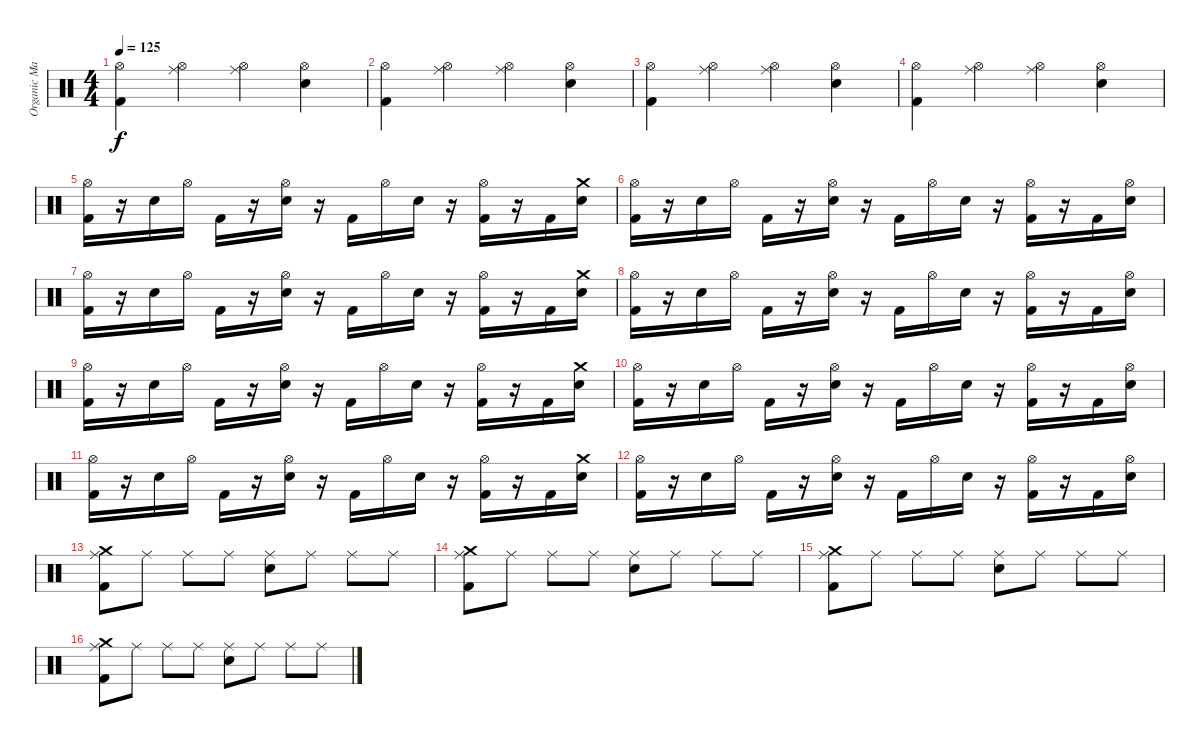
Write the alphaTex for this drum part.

\track ("Organic Masturbator Of 1000 Splatter Who" "Organic Ma") {instrument percussion}
\staff {score}
\articulation defaults
\ts (4 4)
\tempo 125
\clef neutral
\ks c
("Hi-Hat (open)" "Kick (hit) 2").4{dy f} ("Ride (middle)" "Hi-Hat (open)").4 ("Ride (middle)" "Hi-Hat (open)").4 ("Hi-Hat (open)" "Electric Snare (hit)").4 |
("Hi-Hat (open)" "Kick (hit) 2").4 ("Ride (middle)" "Hi-Hat (open)").4 ("Ride (middle)" "Hi-Hat (open)").4 ("Hi-Hat (open)" "Electric Snare (hit)").4 |
("Hi-Hat (open)" "Kick (hit) 2").4 ("Ride (middle)" "Hi-Hat (open)").4 ("Ride (middle)" "Hi-Hat (open)").4 ("Hi-Hat (open)" "Electric Snare (hit)").4 |
("Hi-Hat (open)" "Kick (hit) 2").4 ("Ride (middle)" "Hi-Hat (open)").4 ("Ride (middle)" "Hi-Hat (open)").4 ("Hi-Hat (open)" "Electric Snare (hit)").4 |
("Hi-Hat (open)" "Kick (hit) 2").16 r.16 "Electric Snare (hit)".16 "Hi-Hat (open)".16 "Kick (hit) 2".16 r.16 ("Hi-Hat (open)" "Electric Snare (hit)").16 r.16 "Kick (hit) 2".16 "Hi-Hat (open)".16 "Electric Snare (hit)".16 r.16 ("Hi-Hat (open)" "Kick (hit) 2").16 r.16 "Kick (hit) 2".16 ("Crash medium (hit)" "Electric Snare (hit)").16 |
("Hi-Hat (open)" "Kick (hit) 2").16 r.16 "Electric Snare (hit)".16 "Hi-Hat (open)".16 "Kick (hit) 2".16 r.16 ("Hi-Hat (open)" "Electric Snare (hit)").16 r.16 "Kick (hit) 2".16 "Hi-Hat (open)".16 "Electric Snare (hit)".16 r.16 ("Hi-Hat (open)" "Kick (hit) 2").16 r.16 "Kick (hit) 2".16 ("Hi-Hat (open)" "Electric Snare (hit)").16 |
("Hi-Hat (open)" "Kick (hit) 2").16 r.16 "Electric Snare (hit)".16 "Hi-Hat (open)".16 "Kick (hit) 2".16 r.16 ("Hi-Hat (open)" "Electric Snare (hit)").16 r.16 "Kick (hit) 2".16 "Hi-Hat (open)".16 "Electric Snare (hit)".16 r.16 ("Hi-Hat (open)" "Kick (hit) 2").16 r.16 "Kick (hit) 2".16 ("Crash medium (hit)" "Electric Snare (hit)").16 |
("Hi-Hat (open)" "Kick (hit) 2").16 r.16 "Electric Snare (hit)".16 "Hi-Hat (open)".16 "Kick (hit) 2".16 r.16 ("Hi-Hat (open)" "Electric Snare (hit)").16 r.16 "Kick (hit) 2".16 "Hi-Hat (open)".16 "Electric Snare (hit)".16 r.16 ("Hi-Hat (open)" "Kick (hit) 2").16 r.16 "Kick (hit) 2".16 ("Hi-Hat (open)" "Electric Snare (hit)").16 |
("Hi-Hat (open)" "Kick (hit) 2").16 r.16 "Electric Snare (hit)".16 "Hi-Hat (open)".16 "Kick (hit) 2".16 r.16 ("Hi-Hat (open)" "Electric Snare (hit)").16 r.16 "Kick (hit) 2".16 "Hi-Hat (open)".16 "Electric Snare (hit)".16 r.16 ("Hi-Hat (open)" "Kick (hit) 2").16 r.16 "Kick (hit) 2".16 ("Crash medium (hit)" "Electric Snare (hit)").16 |
("Hi-Hat (open)" "Kick (hit) 2").16 r.16 "Electric Snare (hit)".16 "Hi-Hat (open)".16 "Kick (hit) 2".16 r.16 ("Hi-Hat (open)" "Electric Snare (hit)").16 r.16 "Kick (hit) 2".16 "Hi-Hat (open)".16 "Electric Snare (hit)".16 r.16 ("Hi-Hat (open)" "Kick (hit) 2").16 r.16 "Kick (hit) 2".16 ("Hi-Hat (open)" "Electric Snare (hit)").16 |
("Hi-Hat (open)" "Kick (hit) 2").16 r.16 "Electric Snare (hit)".16 "Hi-Hat (open)".16 "Kick (hit) 2".16 r.16 ("Hi-Hat (open)" "Electric Snare (hit)").16 r.16 "Kick (hit) 2".16 "Hi-Hat (open)".16 "Electric Snare (hit)".16 r.16 ("Hi-Hat (open)" "Kick (hit) 2").16 r.16 "Kick (hit) 2".16 ("Crash medium (hit)" "Electric Snare (hit)").16 |
("Hi-Hat (open)" "Kick (hit) 2").16 r.16 "Electric Snare (hit)".16 "Hi-Hat (open)".16 "Kick (hit) 2".16 r.16 ("Hi-Hat (open)" "Electric Snare (hit)").16 r.16 "Kick (hit) 2".16 "Hi-Hat (open)".16 "Electric Snare (hit)".16 r.16 ("Hi-Hat (open)" "Kick (hit) 2").16 r.16 "Kick (hit) 2".16 ("Hi-Hat (open)" "Electric Snare (hit)").16 |
("Ride (middle)" "Crash medium (hit)" "Kick (hit) 2").8 "Ride (middle)".8 "Ride (middle)".8 "Ride (middle)".8 ("Ride (middle)" "Electric Snare (hit)").8 "Ride (middle)".8 "Ride (middle)".8 "Ride (middle)".8 |
("Ride (middle)" "Crash medium (hit)" "Kick (hit) 2").8 "Ride (middle)".8 "Ride (middle)".8 "Ride (middle)".8 ("Ride (middle)" "Electric Snare (hit)").8 "Ride (middle)".8 "Ride (middle)".8 "Ride (middle)".8 |
("Ride (middle)" "Crash medium (hit)" "Kick (hit) 2").8 "Ride (middle)".8 "Ride (middle)".8 "Ride (middle)".8 ("Ride (middle)" "Electric Snare (hit)").8 "Ride (middle)".8 "Ride (middle)".8 "Ride (middle)".8 |
("Ride (middle)" "Crash medium (hit)" "Kick (hit) 2").8 "Ride (middle)".8 "Ride (middle)".8 "Ride (middle)".8 ("Ride (middle)" "Electric Snare (hit)").8 "Ride (middle)".8 "Ride (middle)".8 "Ride (middle)".8
